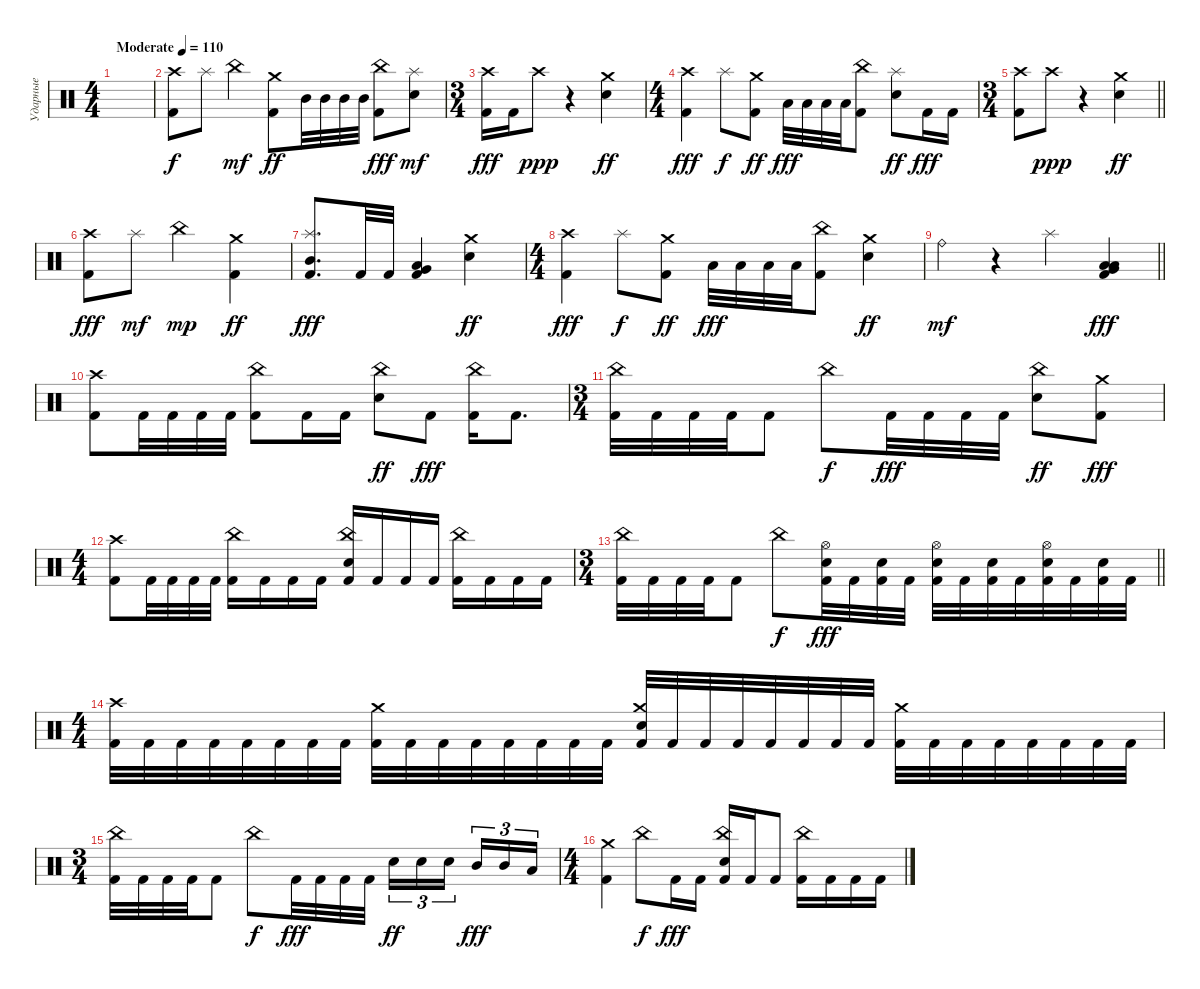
\track ("Ударные" "Ударные") {solo instrument percussion}
\staff {score}
\articulation defaults
\ts (4 4)
\tempo (110 "Moderate")
\clef neutral
\ks c
|
("Crash high (hit)" "Kick (hit) 2").8 "Splash (hit)".8{dy f} "China (hit)".4{dy mf} ("Crash medium (hit)" "Kick (hit) 2").8{dy ff} "Mid Tom (hit)".32 "Mid Tom (hit)".32 "Mid Tom (hit)".32 "Mid Tom (hit)".32 ("China (hit)" "Kick (hit) 2").8{dy fff} ("Splash (hit)" "Electric Snare (hit)").8{dy mf} |
\ts (3 4)
("Crash high (hit)" "Kick (hit) 2").16{dy fff} "Kick (hit) 2".16 "Crash high (hit)".8{dy ppp} r.4 ("Crash medium (hit)" "Electric Snare (hit)").4{dy ff} |
\ts (4 4)
("Crash high (hit)" "Kick (hit) 2").4{dy fff} "Splash (hit)".8{dy f} ("Crash medium (hit)" "Kick (hit) 2").8{dy ff} "Low Tom (hit)".32{dy fff} "Low Tom (hit)".32 "Low Tom (hit)".32 "Low Tom (hit)".32 ("China (hit)" "Kick (hit) 2").8 ("Splash (hit)" "Electric Snare (hit)").8{dy ff} "Kick (hit) 2".16{dy fff} "Kick (hit) 2".16 |
\ts (3 4)
\barLineRight lightlight
("Crash high (hit)" "Kick (hit) 2").8 "Crash high (hit)".8{dy ppp} r.4 ("Crash medium (hit)" "Electric Snare (hit)").4{dy ff} |
("Crash high (hit)" "Kick (hit) 2").8{dy fff} "Splash (hit)".8{dy mf} "China (hit)".4{dy mp} ("Crash medium (hit)" "Kick (hit) 2").4{dy ff} |
("Splash (hit)" "Mid Tom (hit)" "Kick (hit) 2").8{d dy fff} "Kick (hit) 2".32 "Kick (hit) 2".32 ("Very Low Tom (hit)" "Low Tom (hit)" "Kick (hit) 2").4 ("Crash medium (hit)" "Electric Snare (hit)").4{dy ff} |
\ts (4 4)
("Crash high (hit)" "Kick (hit) 2").4{dy fff} "Splash (hit)".8{dy f} ("Crash medium (hit)" "Kick (hit) 2").8{dy ff} "Low Tom (hit)".32{dy fff} "Low Tom (hit)".32 "Low Tom (hit)".32 "Low Tom (hit)".32 ("China (hit)" "Kick (hit) 2").8 ("Crash medium (hit)" "Electric Snare (hit)").4{dy ff} |
\barLineRight lightlight "Ride (bell)".4{dy mf}
r.4 "Splash (hit)".4 ("Very Low Tom (hit)" "Low Floor Tom (hit)" "Low Tom (hit)" "Kick (hit) 2").4{dy fff} |
\section ("" "")
("Crash high (hit)" "Kick (hit) 2").8 "Kick (hit) 2".32 "Kick (hit) 2".32 "Kick (hit) 2".32 "Kick (hit) 2".32 ("China (hit)" "Kick (hit) 2").8 "Kick (hit) 2".16 "Kick (hit) 2".16 ("China (hit)" "Electric Snare (hit)").8{dy ff} "Kick (hit) 2".8{dy fff} ("China (hit)" "Kick (hit) 2").16 "Kick (hit) 2".8{d} |
\ts (3 4)
("China (hit)" "Kick (hit) 2").32 "Kick (hit) 2".32 "Kick (hit) 2".32 "Kick (hit) 2".32 "Kick (hit) 2".8 "China (hit)".8{dy f} "Kick (hit) 2".32{dy fff} "Kick (hit) 2".32 "Kick (hit) 2".32 "Kick (hit) 2".32 ("China (hit)" "Electric Snare (hit)").8{dy ff} ("Crash medium (hit)" "Kick (hit) 2").8{dy fff} |
\ts (4 4)
("Crash high (hit)" "Kick (hit) 2").8 "Kick (hit) 2".32 "Kick (hit) 2".32 "Kick (hit) 2".32 "Kick (hit) 2".32 ("China (hit)" "Kick (hit) 2").16 "Kick (hit) 2".16 "Kick (hit) 2".16 "Kick (hit) 2".16 ("China (hit)" "Electric Snare (hit)" "Kick (hit) 2").16 "Kick (hit) 2".16 "Kick (hit) 2".16 "Kick (hit) 2".16 ("China (hit)" "Kick (hit) 2").16 "Kick (hit) 2".16 "Kick (hit) 2".16 "Kick (hit) 2".16 |
\ts (3 4)
\barLineRight lightlight
("China (hit)" "Kick (hit) 2").32 "Kick (hit) 2".32 "Kick (hit) 2".32 "Kick (hit) 2".32 "Kick (hit) 2".8 "China (hit)".8{dy f} ("Hi-Hat (open)" "Electric Snare (hit)" "Kick (hit) 2").32{dy fff} "Kick (hit) 2".32 ("Electric Snare (hit)" "Kick (hit) 2").32 "Kick (hit) 2".32 ("Hi-Hat (open)" "Electric Snare (hit)" "Kick (hit) 2").32 "Kick (hit) 2".32 ("Electric Snare (hit)" "Kick (hit) 2").32 "Kick (hit) 2".32 ("Hi-Hat (open)" "Electric Snare (hit)" "Kick (hit) 2").32 "Kick (hit) 2".32 ("Electric Snare (hit)" "Kick (hit) 2").32 "Kick (hit) 2".32 |
\ts (4 4)
("Crash high (hit)" "Kick (hit) 2").32 "Kick (hit) 2".32 "Kick (hit) 2".32 "Kick (hit) 2".32 "Kick (hit) 2".32 "Kick (hit) 2".32 "Kick (hit) 2".32 "Kick (hit) 2".32 ("Crash medium (hit)" "Kick (hit) 2").32 "Kick (hit) 2".32 "Kick (hit) 2".32 "Kick (hit) 2".32 "Kick (hit) 2".32 "Kick (hit) 2".32 "Kick (hit) 2".32 "Kick (hit) 2".32 ("Crash medium (hit)" "Electric Snare (hit)" "Kick (hit) 2").32 "Kick (hit) 2".32 "Kick (hit) 2".32 "Kick (hit) 2".32 "Kick (hit) 2".32 "Kick (hit) 2".32 "Kick (hit) 2".32 "Kick (hit) 2".32 ("Crash medium (hit)" "Kick (hit) 2").32 "Kick (hit) 2".32 "Kick (hit) 2".32 "Kick (hit) 2".32 "Kick (hit) 2".32 "Kick (hit) 2".32 "Kick (hit) 2".32 "Kick (hit) 2".32 |
\ts (3 4)
("China (hit)" "Kick (hit) 2").32 "Kick (hit) 2".32 "Kick (hit) 2".32 "Kick (hit) 2".32 "Kick (hit) 2".8 "China (hit)".8{dy f} "Kick (hit) 2".32{dy fff} "Kick (hit) 2".32 "Kick (hit) 2".32 "Kick (hit) 2".32 "Electric Snare (hit)".16{tu (3 2) dy ff} "Electric Snare (hit)".16{tu (3 2)} "Electric Snare (hit)".16{tu (3 2) beam splitsecondary} "Mid Tom (hit)".16{tu (3 2) dy fff} "Mid Tom (hit)".16{tu (3 2)} "Low Tom (hit)".16{tu (3 2)} |
\ts (4 4)
("Crash medium (hit)" "Kick (hit) 2").4 "China (hit)".8{dy f} "Kick (hit) 2".16{dy fff} "Kick (hit) 2".16 ("China (hit)" "Electric Snare (hit)" "Kick (hit) 2").16 "Kick (hit) 2".16 "Kick (hit) 2".8 ("China (hit)" "Kick (hit) 2").16 "Kick (hit) 2".16 "Kick (hit) 2".16 "Kick (hit) 2".16
